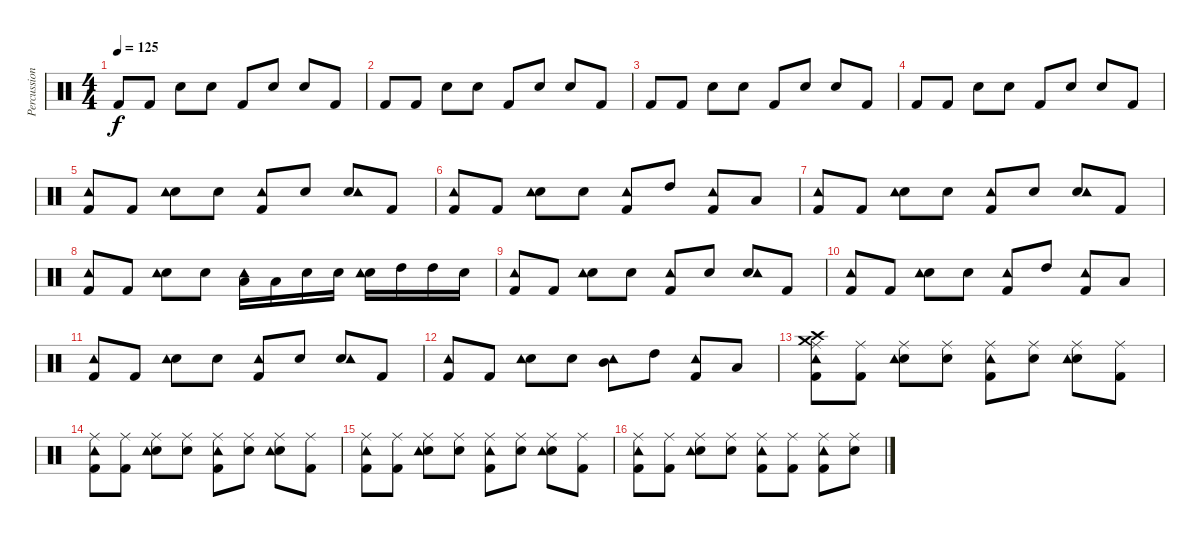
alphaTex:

\track ("Percussioni" "Percussion") {instrument percussion}
\staff {score}
\articulation defaults
\ts (4 4)
\tempo 125
\clef neutral
\ks c "Kick (hit) 2".8{dy f} "Kick (hit) 2".8 "Snare (hit) 2".8 "Snare (hit) 2".8 "Kick (hit) 2".8 "Snare (hit) 2".8 "Snare (hit) 2".8 "Kick (hit) 2".8
|
"Kick (hit) 2".8 "Kick (hit) 2".8 "Snare (hit) 2".8 "Snare (hit) 2".8 "Kick (hit) 2".8 "Snare (hit) 2".8 "Snare (hit) 2".8 "Kick (hit) 2".8 |
"Kick (hit) 2".8 "Kick (hit) 2".8 "Snare (hit) 2".8 "Snare (hit) 2".8 "Kick (hit) 2".8 "Snare (hit) 2".8 "Snare (hit) 2".8 "Kick (hit) 2".8 |
"Kick (hit) 2".8 "Kick (hit) 2".8 "Snare (hit) 2".8 "Snare (hit) 2".8 "Kick (hit) 2".8 "Snare (hit) 2".8 "Snare (hit) 2".8 "Kick (hit) 2".8 |
("Kick (hit) 2" "Tambourine (hit)").8 "Kick (hit) 2".8 ("Snare (hit) 2" "Tambourine (hit)").8 "Snare (hit) 2".8 ("Kick (hit) 2" "Tambourine (hit)").8 "Snare (hit) 2".8 ("Snare (hit) 2" "Tambourine (hit)").8 "Kick (hit) 2".8 |
("Kick (hit) 2" "Tambourine (hit)").8 "Kick (hit) 2".8 ("Snare (hit) 2" "Tambourine (hit)").8 "Snare (hit) 2".8 ("Kick (hit) 2" "Tambourine (hit)").8 "High Tom (hit)".8 ("Kick (hit) 2" "Tambourine (hit)").8 "Low Floor Tom (hit)".8 |
("Kick (hit) 2" "Tambourine (hit)").8 "Kick (hit) 2".8 ("Snare (hit) 2" "Tambourine (hit)").8 "Snare (hit) 2".8 ("Kick (hit) 2" "Tambourine (hit)").8 "Snare (hit) 2".8 ("Snare (hit) 2" "Tambourine (hit)").8 "Kick (hit) 2".8 |
("Kick (hit) 2" "Tambourine (hit)").8 "Kick (hit) 2".8 ("Snare (hit) 2" "Tambourine (hit)").8 "Snare (hit) 2".8 ("Low Floor Tom (hit)" "Tambourine (hit)").16 "Low Floor Tom (hit)".16 "Snare (hit) 2".16 "Snare (hit) 2".16 ("Snare (hit) 2" "Tambourine (hit)").16 "High Tom (hit)".16 "High Tom (hit)".16 "Snare (hit) 2".16 |
("Kick (hit) 2" "Tambourine (hit)").8 "Kick (hit) 2".8 ("Snare (hit) 2" "Tambourine (hit)").8 "Snare (hit) 2".8 ("Kick (hit) 2" "Tambourine (hit)").8 "Snare (hit) 2".8 ("Snare (hit) 2" "Tambourine (hit)").8 "Kick (hit) 2".8 |
("Kick (hit) 2" "Tambourine (hit)").8 "Kick (hit) 2".8 ("Snare (hit) 2" "Tambourine (hit)").8 "Snare (hit) 2".8 ("Kick (hit) 2" "Tambourine (hit)").8 "High Tom (hit)".8 ("Kick (hit) 2" "Tambourine (hit)").8 "Low Floor Tom (hit)".8 |
("Kick (hit) 2" "Tambourine (hit)").8 "Kick (hit) 2".8 ("Snare (hit) 2" "Tambourine (hit)").8 "Snare (hit) 2".8 ("Kick (hit) 2" "Tambourine (hit)").8 "Snare (hit) 2".8 ("Snare (hit) 2" "Tambourine (hit)").8 "Kick (hit) 2".8 |
("Kick (hit) 2" "Tambourine (hit)").8 "Kick (hit) 2".8 ("Snare (hit) 2" "Tambourine (hit)").8 "Snare (hit) 2".8 ("Mid Tom (hit)" "Tambourine (hit)").8 "High Tom (hit)".8 ("Kick (hit) 2" "Tambourine (hit)").8 "Low Floor Tom (hit)".8 |
("Kick (hit) 2" "Ride (middle)" "Crash high (hit)" "Tambourine (hit)" "Crash medium (hit)").8 ("Kick (hit) 2" "Ride (middle)").8 ("Snare (hit) 2" "Ride (middle)" "Tambourine (hit)").8 ("Snare (hit) 2" "Ride (middle)").8 ("Kick (hit) 2" "Ride (middle)" "Tambourine (hit)").8 ("Snare (hit) 2" "Ride (middle)").8 ("Snare (hit) 2" "Ride (middle)" "Tambourine (hit)").8 ("Kick (hit) 2" "Ride (middle)").8 |
("Kick (hit) 2" "Ride (middle)" "Tambourine (hit)").8 ("Kick (hit) 2" "Ride (middle)").8 ("Snare (hit) 2" "Ride (middle)" "Tambourine (hit)").8 ("Snare (hit) 2" "Ride (middle)").8 ("Kick (hit) 2" "Ride (middle)" "Tambourine (hit)").8 ("Snare (hit) 2" "Ride (middle)").8 ("Snare (hit) 2" "Ride (middle)" "Tambourine (hit)").8 ("Kick (hit) 2" "Ride (middle)").8 |
("Kick (hit) 2" "Ride (middle)" "Tambourine (hit)").8 ("Kick (hit) 2" "Ride (middle)").8 ("Snare (hit) 2" "Ride (middle)" "Tambourine (hit)").8 ("Snare (hit) 2" "Ride (middle)").8 ("Kick (hit) 2" "Ride (middle)" "Tambourine (hit)").8 ("Snare (hit) 2" "Ride (middle)").8 ("Snare (hit) 2" "Ride (middle)" "Tambourine (hit)").8 ("Kick (hit) 2" "Ride (middle)").8 |
("Kick (hit) 2" "Ride (middle)" "Tambourine (hit)").8 ("Kick (hit) 2" "Ride (middle)").8 ("Snare (hit) 2" "Ride (middle)" "Tambourine (hit)").8 ("Snare (hit) 2" "Ride (middle)").8 ("Kick (hit) 2" "Ride (middle)" "Tambourine (hit)").8 ("Kick (hit) 2" "Ride (middle)").8 ("Kick (hit) 2" "Ride (middle)" "Tambourine (hit)").8 ("Snare (hit) 2" "Ride (middle)").8
